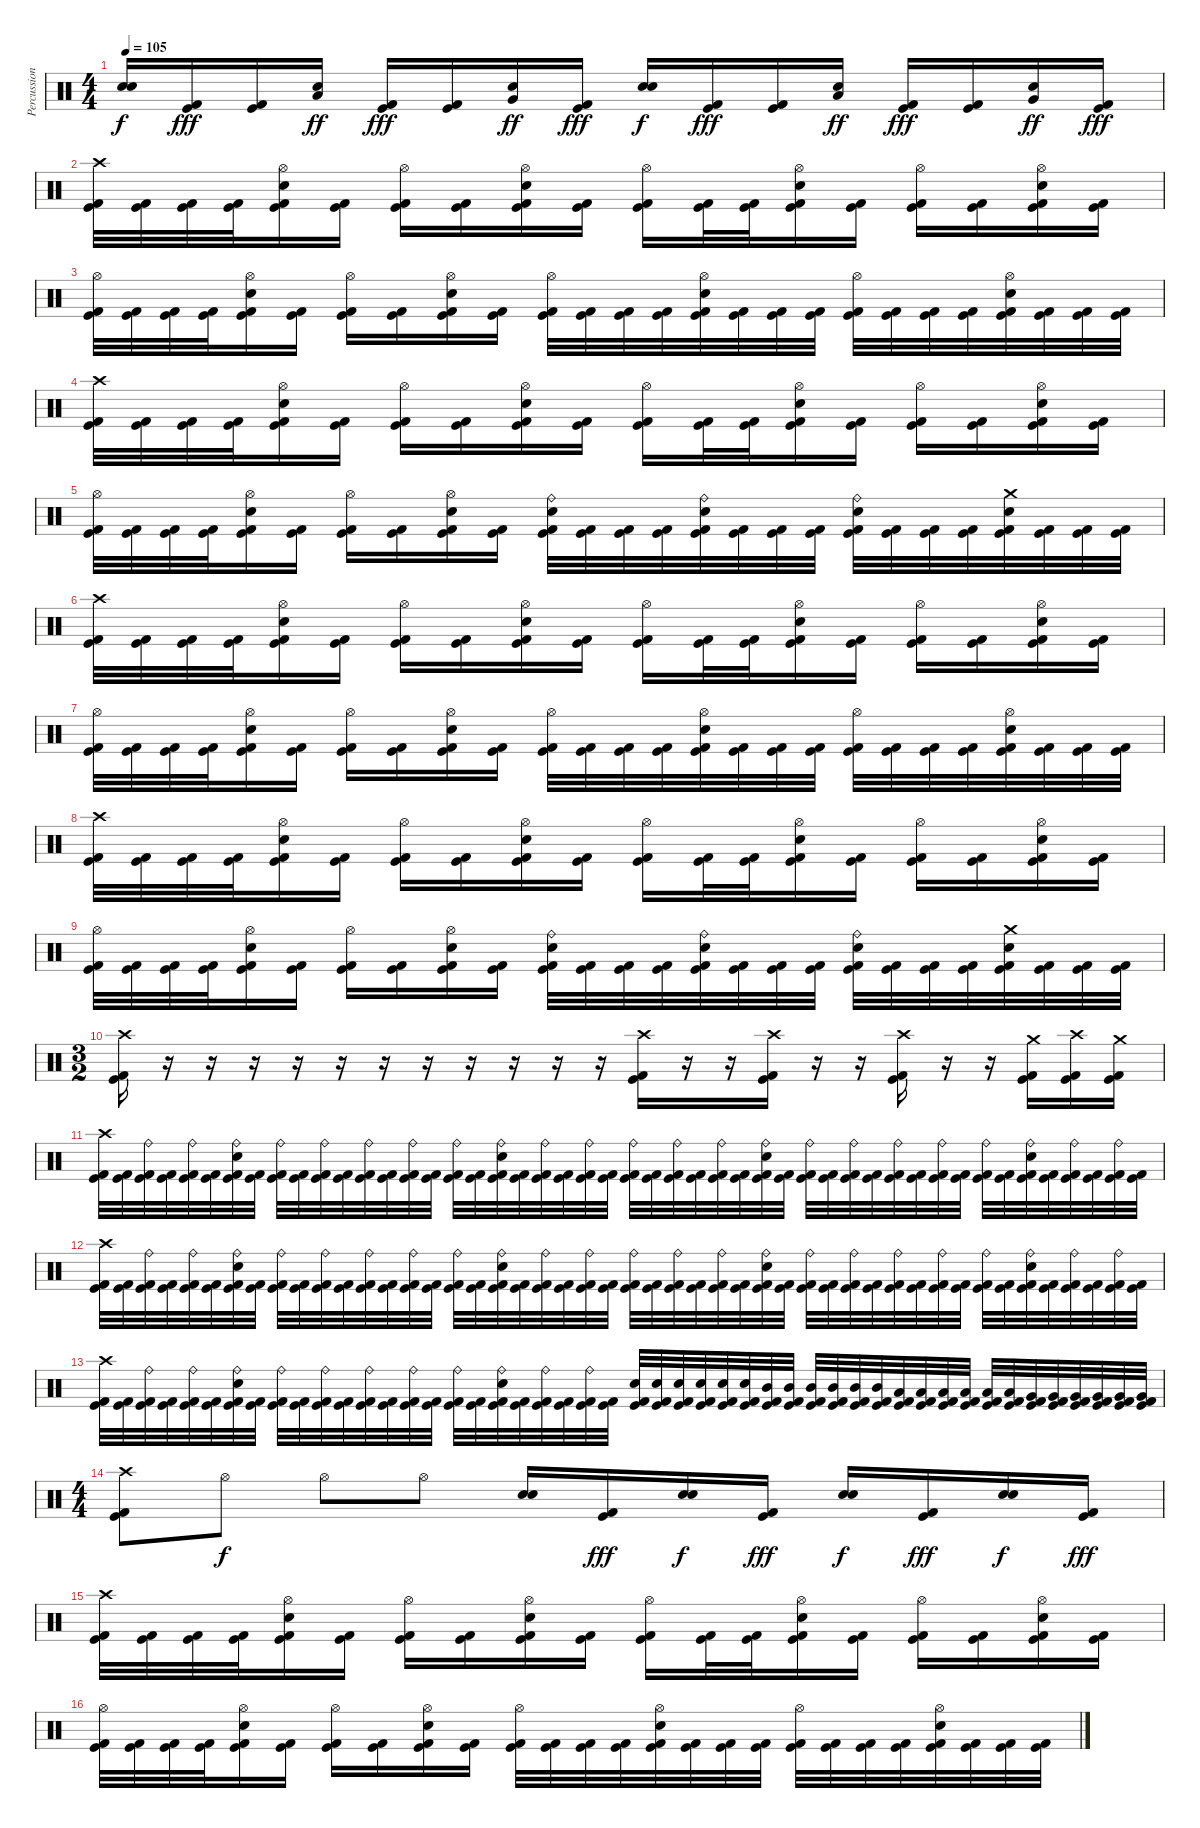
\track ("Percussion" "Percussion") {instrument percussion}
\staff {score}
\articulation defaults
\ts (4 4)
\tempo 105
\clef neutral
\ks c
("Electric Snare (hit)" "Electric Snare (hit)").16{bu 60 dy f} ("Kick (hit)" "Kick (hit) 2").16{dy fff} ("Kick (hit)" "Kick (hit) 2").16 ("Electric Snare (hit)" "Low Tom (hit)").16{bu 60 dy ff} ("Kick (hit)" "Kick (hit) 2").16{dy fff} ("Kick (hit)" "Kick (hit) 2").16 ("Electric Snare (hit)" "Very Low Tom (hit)").16{bu 60 dy ff} ("Kick (hit)" "Kick (hit) 2").16{dy fff} ("Electric Snare (hit)" "Electric Snare (hit)").16{bu 60 dy f} ("Kick (hit)" "Kick (hit) 2").16{dy fff} ("Kick (hit)" "Kick (hit) 2").16 ("Electric Snare (hit)" "Low Tom (hit)").16{bu 60 dy ff} ("Kick (hit)" "Kick (hit) 2").16{dy fff} ("Kick (hit)" "Kick (hit) 2").16 ("Electric Snare (hit)" "Very Low Tom (hit)").16{bu 60 dy ff} ("Kick (hit)" "Kick (hit) 2").16{dy fff} |
("Crash high (hit)" "Kick (hit)" "Kick (hit) 2").32 ("Kick (hit)" "Kick (hit) 2").32 ("Kick (hit)" "Kick (hit) 2").32 ("Kick (hit)" "Kick (hit) 2").32 ("Hi-Hat (open)" "Electric Snare (hit)" "Kick (hit)" "Kick (hit) 2").16 ("Kick (hit)" "Kick (hit) 2").16 ("Hi-Hat (open)" "Kick (hit)" "Kick (hit) 2").16 ("Kick (hit)" "Kick (hit) 2").16 ("Hi-Hat (open)" "Electric Snare (hit)" "Kick (hit)" "Kick (hit) 2").16 ("Kick (hit)" "Kick (hit) 2").16 ("Hi-Hat (open)" "Kick (hit)" "Kick (hit) 2").16 ("Kick (hit)" "Kick (hit) 2").32 ("Kick (hit)" "Kick (hit) 2").32 ("Hi-Hat (open)" "Electric Snare (hit)" "Kick (hit)" "Kick (hit) 2").16 ("Kick (hit)" "Kick (hit) 2").16 ("Hi-Hat (open)" "Kick (hit)" "Kick (hit) 2").16 ("Kick (hit)" "Kick (hit) 2").16 ("Hi-Hat (open)" "Electric Snare (hit)" "Kick (hit)" "Kick (hit) 2").16 ("Kick (hit)" "Kick (hit) 2").16 |
("Hi-Hat (open)" "Kick (hit)" "Kick (hit) 2").32 ("Kick (hit)" "Kick (hit) 2").32 ("Kick (hit)" "Kick (hit) 2").32 ("Kick (hit)" "Kick (hit) 2").32 ("Hi-Hat (open)" "Electric Snare (hit)" "Kick (hit)" "Kick (hit) 2").16 ("Kick (hit)" "Kick (hit) 2").16 ("Hi-Hat (open)" "Kick (hit)" "Kick (hit) 2").16 ("Kick (hit)" "Kick (hit) 2").16 ("Hi-Hat (open)" "Electric Snare (hit)" "Kick (hit)" "Kick (hit) 2").16 ("Kick (hit)" "Kick (hit) 2").16 ("Hi-Hat (open)" "Kick (hit)" "Kick (hit) 2").32 ("Kick (hit)" "Kick (hit) 2").32 ("Kick (hit)" "Kick (hit) 2").32 ("Kick (hit)" "Kick (hit) 2").32 ("Hi-Hat (open)" "Electric Snare (hit)" "Kick (hit)" "Kick (hit) 2").32 ("Kick (hit)" "Kick (hit) 2").32 ("Kick (hit)" "Kick (hit) 2").32 ("Kick (hit)" "Kick (hit) 2").32 ("Hi-Hat (open)" "Kick (hit)" "Kick (hit) 2").32 ("Kick (hit)" "Kick (hit) 2").32 ("Kick (hit)" "Kick (hit) 2").32 ("Kick (hit)" "Kick (hit) 2").32 ("Hi-Hat (open)" "Electric Snare (hit)" "Kick (hit)" "Kick (hit) 2").32 ("Kick (hit)" "Kick (hit) 2").32 ("Kick (hit)" "Kick (hit) 2").32 ("Kick (hit)" "Kick (hit) 2").32 |
("Crash high (hit)" "Kick (hit)" "Kick (hit) 2").32 ("Kick (hit)" "Kick (hit) 2").32 ("Kick (hit)" "Kick (hit) 2").32 ("Kick (hit)" "Kick (hit) 2").32 ("Hi-Hat (open)" "Electric Snare (hit)" "Kick (hit)" "Kick (hit) 2").16 ("Kick (hit)" "Kick (hit) 2").16 ("Hi-Hat (open)" "Kick (hit)" "Kick (hit) 2").16 ("Kick (hit)" "Kick (hit) 2").16 ("Hi-Hat (open)" "Electric Snare (hit)" "Kick (hit)" "Kick (hit) 2").16 ("Kick (hit)" "Kick (hit) 2").16 ("Hi-Hat (open)" "Kick (hit)" "Kick (hit) 2").16 ("Kick (hit)" "Kick (hit) 2").32 ("Kick (hit)" "Kick (hit) 2").32 ("Hi-Hat (open)" "Electric Snare (hit)" "Kick (hit)" "Kick (hit) 2").16 ("Kick (hit)" "Kick (hit) 2").16 ("Hi-Hat (open)" "Kick (hit)" "Kick (hit) 2").16 ("Kick (hit)" "Kick (hit) 2").16 ("Hi-Hat (open)" "Electric Snare (hit)" "Kick (hit)" "Kick (hit) 2").16 ("Kick (hit)" "Kick (hit) 2").16 |
("Hi-Hat (open)" "Kick (hit)" "Kick (hit) 2").32 ("Kick (hit)" "Kick (hit) 2").32 ("Kick (hit)" "Kick (hit) 2").32 ("Kick (hit)" "Kick (hit) 2").32 ("Hi-Hat (open)" "Electric Snare (hit)" "Kick (hit)" "Kick (hit) 2").16 ("Kick (hit)" "Kick (hit) 2").16 ("Hi-Hat (open)" "Kick (hit)" "Kick (hit) 2").16 ("Kick (hit)" "Kick (hit) 2").16 ("Hi-Hat (open)" "Electric Snare (hit)" "Kick (hit)" "Kick (hit) 2").16 ("Kick (hit)" "Kick (hit) 2").16 ("Ride (bell)" "Electric Snare (hit)" "Kick (hit)" "Kick (hit) 2").32 ("Kick (hit)" "Kick (hit) 2").32 ("Kick (hit)" "Kick (hit) 2").32 ("Kick (hit)" "Kick (hit) 2").32 ("Ride (bell)" "Electric Snare (hit)" "Kick (hit)" "Kick (hit) 2").32 ("Kick (hit)" "Kick (hit) 2").32 ("Kick (hit)" "Kick (hit) 2").32 ("Kick (hit)" "Kick (hit) 2").32 ("Ride (bell)" "Electric Snare (hit)" "Kick (hit)" "Kick (hit) 2").32 ("Kick (hit)" "Kick (hit) 2").32 ("Kick (hit)" "Kick (hit) 2").32 ("Kick (hit)" "Kick (hit) 2").32 ("Crash medium (hit)" "Electric Snare (hit)" "Kick (hit)" "Kick (hit) 2").32 ("Kick (hit)" "Kick (hit) 2").32 ("Kick (hit)" "Kick (hit) 2").32 ("Kick (hit)" "Kick (hit) 2").32 |
("Crash high (hit)" "Kick (hit)" "Kick (hit) 2").32 ("Kick (hit)" "Kick (hit) 2").32 ("Kick (hit)" "Kick (hit) 2").32 ("Kick (hit)" "Kick (hit) 2").32 ("Hi-Hat (open)" "Electric Snare (hit)" "Kick (hit)" "Kick (hit) 2").16 ("Kick (hit)" "Kick (hit) 2").16 ("Hi-Hat (open)" "Kick (hit)" "Kick (hit) 2").16 ("Kick (hit)" "Kick (hit) 2").16 ("Hi-Hat (open)" "Electric Snare (hit)" "Kick (hit)" "Kick (hit) 2").16 ("Kick (hit)" "Kick (hit) 2").16 ("Hi-Hat (open)" "Kick (hit)" "Kick (hit) 2").16 ("Kick (hit)" "Kick (hit) 2").32 ("Kick (hit)" "Kick (hit) 2").32 ("Hi-Hat (open)" "Electric Snare (hit)" "Kick (hit)" "Kick (hit) 2").16 ("Kick (hit)" "Kick (hit) 2").16 ("Hi-Hat (open)" "Kick (hit)" "Kick (hit) 2").16 ("Kick (hit)" "Kick (hit) 2").16 ("Hi-Hat (open)" "Electric Snare (hit)" "Kick (hit)" "Kick (hit) 2").16 ("Kick (hit)" "Kick (hit) 2").16 |
("Hi-Hat (open)" "Kick (hit)" "Kick (hit) 2").32 ("Kick (hit)" "Kick (hit) 2").32 ("Kick (hit)" "Kick (hit) 2").32 ("Kick (hit)" "Kick (hit) 2").32 ("Hi-Hat (open)" "Electric Snare (hit)" "Kick (hit)" "Kick (hit) 2").16 ("Kick (hit)" "Kick (hit) 2").16 ("Hi-Hat (open)" "Kick (hit)" "Kick (hit) 2").16 ("Kick (hit)" "Kick (hit) 2").16 ("Hi-Hat (open)" "Electric Snare (hit)" "Kick (hit)" "Kick (hit) 2").16 ("Kick (hit)" "Kick (hit) 2").16 ("Hi-Hat (open)" "Kick (hit)" "Kick (hit) 2").32 ("Kick (hit)" "Kick (hit) 2").32 ("Kick (hit)" "Kick (hit) 2").32 ("Kick (hit)" "Kick (hit) 2").32 ("Hi-Hat (open)" "Electric Snare (hit)" "Kick (hit)" "Kick (hit) 2").32 ("Kick (hit)" "Kick (hit) 2").32 ("Kick (hit)" "Kick (hit) 2").32 ("Kick (hit)" "Kick (hit) 2").32 ("Hi-Hat (open)" "Kick (hit)" "Kick (hit) 2").32 ("Kick (hit)" "Kick (hit) 2").32 ("Kick (hit)" "Kick (hit) 2").32 ("Kick (hit)" "Kick (hit) 2").32 ("Hi-Hat (open)" "Electric Snare (hit)" "Kick (hit)" "Kick (hit) 2").32 ("Kick (hit)" "Kick (hit) 2").32 ("Kick (hit)" "Kick (hit) 2").32 ("Kick (hit)" "Kick (hit) 2").32 |
("Crash high (hit)" "Kick (hit)" "Kick (hit) 2").32 ("Kick (hit)" "Kick (hit) 2").32 ("Kick (hit)" "Kick (hit) 2").32 ("Kick (hit)" "Kick (hit) 2").32 ("Hi-Hat (open)" "Electric Snare (hit)" "Kick (hit)" "Kick (hit) 2").16 ("Kick (hit)" "Kick (hit) 2").16 ("Hi-Hat (open)" "Kick (hit)" "Kick (hit) 2").16 ("Kick (hit)" "Kick (hit) 2").16 ("Hi-Hat (open)" "Electric Snare (hit)" "Kick (hit)" "Kick (hit) 2").16 ("Kick (hit)" "Kick (hit) 2").16 ("Hi-Hat (open)" "Kick (hit)" "Kick (hit) 2").16 ("Kick (hit)" "Kick (hit) 2").32 ("Kick (hit)" "Kick (hit) 2").32 ("Hi-Hat (open)" "Electric Snare (hit)" "Kick (hit)" "Kick (hit) 2").16 ("Kick (hit)" "Kick (hit) 2").16 ("Hi-Hat (open)" "Kick (hit)" "Kick (hit) 2").16 ("Kick (hit)" "Kick (hit) 2").16 ("Hi-Hat (open)" "Electric Snare (hit)" "Kick (hit)" "Kick (hit) 2").16 ("Kick (hit)" "Kick (hit) 2").16 |
("Hi-Hat (open)" "Kick (hit)" "Kick (hit) 2").32 ("Kick (hit)" "Kick (hit) 2").32 ("Kick (hit)" "Kick (hit) 2").32 ("Kick (hit)" "Kick (hit) 2").32 ("Hi-Hat (open)" "Electric Snare (hit)" "Kick (hit)" "Kick (hit) 2").16 ("Kick (hit)" "Kick (hit) 2").16 ("Hi-Hat (open)" "Kick (hit)" "Kick (hit) 2").16 ("Kick (hit)" "Kick (hit) 2").16 ("Hi-Hat (open)" "Electric Snare (hit)" "Kick (hit)" "Kick (hit) 2").16 ("Kick (hit)" "Kick (hit) 2").16 ("Ride (bell)" "Electric Snare (hit)" "Kick (hit)" "Kick (hit) 2").32 ("Kick (hit)" "Kick (hit) 2").32 ("Kick (hit)" "Kick (hit) 2").32 ("Kick (hit)" "Kick (hit) 2").32 ("Ride (bell)" "Electric Snare (hit)" "Kick (hit)" "Kick (hit) 2").32 ("Kick (hit)" "Kick (hit) 2").32 ("Kick (hit)" "Kick (hit) 2").32 ("Kick (hit)" "Kick (hit) 2").32 ("Ride (bell)" "Electric Snare (hit)" "Kick (hit)" "Kick (hit) 2").32 ("Kick (hit)" "Kick (hit) 2").32 ("Kick (hit)" "Kick (hit) 2").32 ("Kick (hit)" "Kick (hit) 2").32 ("Crash medium (hit)" "Electric Snare (hit)" "Kick (hit)" "Kick (hit) 2").32 ("Kick (hit)" "Kick (hit) 2").32 ("Kick (hit)" "Kick (hit) 2").32 ("Kick (hit)" "Kick (hit) 2").32 |
\ts (3 2)
("Crash high (hit)" "Kick (hit)" "Kick (hit) 2").16 r.16 r.16 r.16 r.16 r.16 r.16 r.16 r.16 r.16 r.16 r.16 ("Crash high (hit)" "Kick (hit)" "Kick (hit) 2").16 r.16 r.16 ("Crash high (hit)" "Kick (hit)" "Kick (hit) 2").16 r.16 r.16 ("Crash high (hit)" "Kick (hit)" "Kick (hit) 2").16 r.16 r.16 ("Crash medium (hit)" "Kick (hit)" "Kick (hit) 2").16 ("Crash high (hit)" "Kick (hit)" "Kick (hit) 2").16 ("Crash medium (hit)" "Kick (hit)" "Kick (hit) 2").16 |
("Crash high (hit)" "Kick (hit)" "Kick (hit) 2").32 ("Kick (hit)" "Kick (hit) 2").32 ("Ride (bell)" "Kick (hit)" "Kick (hit) 2").32 ("Kick (hit)" "Kick (hit) 2").32 ("Ride (bell)" "Kick (hit)" "Kick (hit) 2").32 ("Kick (hit)" "Kick (hit) 2").32 ("Ride (bell)" "Electric Snare (hit)" "Kick (hit)" "Kick (hit) 2").32 ("Kick (hit)" "Kick (hit) 2").32 ("Ride (bell)" "Kick (hit)" "Kick (hit) 2").32 ("Kick (hit)" "Kick (hit) 2").32 ("Ride (bell)" "Kick (hit)" "Kick (hit) 2").32 ("Kick (hit)" "Kick (hit) 2").32 ("Ride (bell)" "Kick (hit)" "Kick (hit) 2").32 ("Kick (hit)" "Kick (hit) 2").32 ("Ride (bell)" "Kick (hit)" "Kick (hit) 2").32 ("Kick (hit)" "Kick (hit) 2").32 ("Ride (bell)" "Kick (hit)" "Kick (hit) 2").32 ("Kick (hit)" "Kick (hit) 2").32 ("Ride (bell)" "Electric Snare (hit)" "Kick (hit)" "Kick (hit) 2").32 ("Kick (hit)" "Kick (hit) 2").32 ("Ride (bell)" "Kick (hit)" "Kick (hit) 2").32 ("Kick (hit)" "Kick (hit) 2").32 ("Ride (bell)" "Kick (hit)" "Kick (hit) 2").32 ("Kick (hit)" "Kick (hit) 2").32 ("Ride (bell)" "Kick (hit)" "Kick (hit) 2").32 ("Kick (hit)" "Kick (hit) 2").32 ("Ride (bell)" "Kick (hit)" "Kick (hit) 2").32 ("Kick (hit)" "Kick (hit) 2").32 ("Ride (bell)" "Kick (hit)" "Kick (hit) 2").32 ("Kick (hit)" "Kick (hit) 2").32 ("Ride (bell)" "Electric Snare (hit)" "Kick (hit)" "Kick (hit) 2").32 ("Kick (hit)" "Kick (hit) 2").32 ("Ride (bell)" "Kick (hit)" "Kick (hit) 2").32 ("Kick (hit)" "Kick (hit) 2").32 ("Ride (bell)" "Kick (hit)" "Kick (hit) 2").32 ("Kick (hit)" "Kick (hit) 2").32 ("Ride (bell)" "Kick (hit)" "Kick (hit) 2").32 ("Kick (hit)" "Kick (hit) 2").32 ("Ride (bell)" "Kick (hit)" "Kick (hit) 2").32 ("Kick (hit)" "Kick (hit) 2").32 ("Ride (bell)" "Kick (hit)" "Kick (hit) 2").32 ("Kick (hit)" "Kick (hit) 2").32 ("Ride (bell)" "Electric Snare (hit)" "Kick (hit)" "Kick (hit) 2").32 ("Kick (hit)" "Kick (hit) 2").32 ("Ride (bell)" "Kick (hit)" "Kick (hit) 2").32 ("Kick (hit)" "Kick (hit) 2").32 ("Ride (bell)" "Kick (hit)" "Kick (hit) 2").32 ("Kick (hit)" "Kick (hit) 2").32 |
("Crash high (hit)" "Kick (hit)" "Kick (hit) 2").32 ("Kick (hit)" "Kick (hit) 2").32 ("Ride (bell)" "Kick (hit)" "Kick (hit) 2").32 ("Kick (hit)" "Kick (hit) 2").32 ("Ride (bell)" "Kick (hit)" "Kick (hit) 2").32 ("Kick (hit)" "Kick (hit) 2").32 ("Ride (bell)" "Electric Snare (hit)" "Kick (hit)" "Kick (hit) 2").32 ("Kick (hit)" "Kick (hit) 2").32 ("Ride (bell)" "Kick (hit)" "Kick (hit) 2").32 ("Kick (hit)" "Kick (hit) 2").32 ("Ride (bell)" "Kick (hit)" "Kick (hit) 2").32 ("Kick (hit)" "Kick (hit) 2").32 ("Ride (bell)" "Kick (hit)" "Kick (hit) 2").32 ("Kick (hit)" "Kick (hit) 2").32 ("Ride (bell)" "Kick (hit)" "Kick (hit) 2").32 ("Kick (hit)" "Kick (hit) 2").32 ("Ride (bell)" "Kick (hit)" "Kick (hit) 2").32 ("Kick (hit)" "Kick (hit) 2").32 ("Ride (bell)" "Electric Snare (hit)" "Kick (hit)" "Kick (hit) 2").32 ("Kick (hit)" "Kick (hit) 2").32 ("Ride (bell)" "Kick (hit)" "Kick (hit) 2").32 ("Kick (hit)" "Kick (hit) 2").32 ("Ride (bell)" "Kick (hit)" "Kick (hit) 2").32 ("Kick (hit)" "Kick (hit) 2").32 ("Ride (bell)" "Kick (hit)" "Kick (hit) 2").32 ("Kick (hit)" "Kick (hit) 2").32 ("Ride (bell)" "Kick (hit)" "Kick (hit) 2").32 ("Kick (hit)" "Kick (hit) 2").32 ("Ride (bell)" "Kick (hit)" "Kick (hit) 2").32 ("Kick (hit)" "Kick (hit) 2").32 ("Ride (bell)" "Electric Snare (hit)" "Kick (hit)" "Kick (hit) 2").32 ("Kick (hit)" "Kick (hit) 2").32 ("Ride (bell)" "Kick (hit)" "Kick (hit) 2").32 ("Kick (hit)" "Kick (hit) 2").32 ("Ride (bell)" "Kick (hit)" "Kick (hit) 2").32 ("Kick (hit)" "Kick (hit) 2").32 ("Ride (bell)" "Kick (hit)" "Kick (hit) 2").32 ("Kick (hit)" "Kick (hit) 2").32 ("Ride (bell)" "Kick (hit)" "Kick (hit) 2").32 ("Kick (hit)" "Kick (hit) 2").32 ("Ride (bell)" "Kick (hit)" "Kick (hit) 2").32 ("Kick (hit)" "Kick (hit) 2").32 ("Ride (bell)" "Electric Snare (hit)" "Kick (hit)" "Kick (hit) 2").32 ("Kick (hit)" "Kick (hit) 2").32 ("Ride (bell)" "Kick (hit)" "Kick (hit) 2").32 ("Kick (hit)" "Kick (hit) 2").32 ("Ride (bell)" "Kick (hit)" "Kick (hit) 2").32 ("Kick (hit)" "Kick (hit) 2").32 |
("Crash high (hit)" "Kick (hit)" "Kick (hit) 2").32 ("Kick (hit)" "Kick (hit) 2").32 ("Ride (bell)" "Kick (hit)" "Kick (hit) 2").32 ("Kick (hit)" "Kick (hit) 2").32 ("Ride (bell)" "Kick (hit)" "Kick (hit) 2").32 ("Kick (hit)" "Kick (hit) 2").32 ("Ride (bell)" "Electric Snare (hit)" "Kick (hit)" "Kick (hit) 2").32 ("Kick (hit)" "Kick (hit) 2").32 ("Ride (bell)" "Kick (hit)" "Kick (hit) 2").32 ("Kick (hit)" "Kick (hit) 2").32 ("Ride (bell)" "Kick (hit)" "Kick (hit) 2").32 ("Kick (hit)" "Kick (hit) 2").32 ("Ride (bell)" "Kick (hit)" "Kick (hit) 2").32 ("Kick (hit)" "Kick (hit) 2").32 ("Ride (bell)" "Kick (hit)" "Kick (hit) 2").32 ("Kick (hit)" "Kick (hit) 2").32 ("Ride (bell)" "Kick (hit)" "Kick (hit) 2").32 ("Kick (hit)" "Kick (hit) 2").32 ("Ride (bell)" "Electric Snare (hit)" "Kick (hit)" "Kick (hit) 2").32 ("Kick (hit)" "Kick (hit) 2").32 ("Ride (bell)" "Kick (hit)" "Kick (hit) 2").32 ("Kick (hit)" "Kick (hit) 2").32 ("Ride (bell)" "Kick (hit)" "Kick (hit) 2").32 ("Kick (hit)" "Kick (hit) 2").32 ("Electric Snare (hit)" "Kick (hit)" "Kick (hit) 2").32 ("Electric Snare (hit)" "Kick (hit)" "Kick (hit) 2").32 ("Electric Snare (hit)" "Kick (hit)" "Kick (hit) 2").32 ("Electric Snare (hit)" "Kick (hit)" "Kick (hit) 2").32 ("Electric Snare (hit)" "Kick (hit)" "Kick (hit) 2").32 ("Electric Snare (hit)" "Kick (hit)" "Kick (hit) 2").32 ("Mid Tom (hit)" "Kick (hit)" "Kick (hit) 2").32 ("Mid Tom (hit)" "Kick (hit)" "Kick (hit) 2").32 ("Mid Tom (hit)" "Kick (hit)" "Kick (hit) 2").32 ("Mid Tom (hit)" "Kick (hit)" "Kick (hit) 2").32 ("Mid Tom (hit)" "Kick (hit)" "Kick (hit) 2").32 ("Mid Tom (hit)" "Kick (hit)" "Kick (hit) 2").32 ("Low Tom (hit)" "Kick (hit)" "Kick (hit) 2").32 ("Low Tom (hit)" "Kick (hit)" "Kick (hit) 2").32 ("Low Tom (hit)" "Kick (hit)" "Kick (hit) 2").32 ("Low Tom (hit)" "Kick (hit)" "Kick (hit) 2").32 ("Low Tom (hit)" "Kick (hit)" "Kick (hit) 2").32 ("Low Tom (hit)" "Kick (hit)" "Kick (hit) 2").32 ("Very Low Tom (hit)" "Kick (hit)" "Kick (hit) 2").32 ("Very Low Tom (hit)" "Kick (hit)" "Kick (hit) 2").32 ("Very Low Tom (hit)" "Kick (hit)" "Kick (hit) 2").32 ("Very Low Tom (hit)" "Kick (hit)" "Kick (hit) 2").32 ("Very Low Tom (hit)" "Kick (hit)" "Kick (hit) 2").32 ("Very Low Tom (hit)" "Kick (hit)" "Kick (hit) 2").32 |
\ts (4 4)
("Crash high (hit)" "Kick (hit)" "Kick (hit) 2").8 "Hi-Hat (open)".8{dy f} "Hi-Hat (open)".8 "Hi-Hat (open)".8 ("Electric Snare (hit)" "Electric Snare (hit)").16{bu 120} ("Kick (hit)" "Kick (hit) 2").16{dy fff} ("Electric Snare (hit)" "Electric Snare (hit)").16{bu 120 dy f} ("Kick (hit)" "Kick (hit) 2").16{dy fff} ("Electric Snare (hit)" "Electric Snare (hit)").16{bu 120 dy f} ("Kick (hit)" "Kick (hit) 2").16{dy fff} ("Electric Snare (hit)" "Electric Snare (hit)").16{bu 120 dy f} ("Kick (hit)" "Kick (hit) 2").16{dy fff} |
("Crash high (hit)" "Kick (hit)" "Kick (hit) 2").32 ("Kick (hit)" "Kick (hit) 2").32 ("Kick (hit)" "Kick (hit) 2").32 ("Kick (hit)" "Kick (hit) 2").32 ("Hi-Hat (open)" "Electric Snare (hit)" "Kick (hit)" "Kick (hit) 2").16 ("Kick (hit)" "Kick (hit) 2").16 ("Hi-Hat (open)" "Kick (hit)" "Kick (hit) 2").16 ("Kick (hit)" "Kick (hit) 2").16 ("Hi-Hat (open)" "Electric Snare (hit)" "Kick (hit)" "Kick (hit) 2").16 ("Kick (hit)" "Kick (hit) 2").16 ("Hi-Hat (open)" "Kick (hit)" "Kick (hit) 2").16 ("Kick (hit)" "Kick (hit) 2").32 ("Kick (hit)" "Kick (hit) 2").32 ("Hi-Hat (open)" "Electric Snare (hit)" "Kick (hit)" "Kick (hit) 2").16 ("Kick (hit)" "Kick (hit) 2").16 ("Hi-Hat (open)" "Kick (hit)" "Kick (hit) 2").16 ("Kick (hit)" "Kick (hit) 2").16 ("Hi-Hat (open)" "Electric Snare (hit)" "Kick (hit)" "Kick (hit) 2").16 ("Kick (hit)" "Kick (hit) 2").16 |
("Hi-Hat (open)" "Kick (hit)" "Kick (hit) 2").32 ("Kick (hit)" "Kick (hit) 2").32 ("Kick (hit)" "Kick (hit) 2").32 ("Kick (hit)" "Kick (hit) 2").32 ("Hi-Hat (open)" "Electric Snare (hit)" "Kick (hit)" "Kick (hit) 2").16 ("Kick (hit)" "Kick (hit) 2").16 ("Hi-Hat (open)" "Kick (hit)" "Kick (hit) 2").16 ("Kick (hit)" "Kick (hit) 2").16 ("Hi-Hat (open)" "Electric Snare (hit)" "Kick (hit)" "Kick (hit) 2").16 ("Kick (hit)" "Kick (hit) 2").16 ("Hi-Hat (open)" "Kick (hit)" "Kick (hit) 2").32 ("Kick (hit)" "Kick (hit) 2").32 ("Kick (hit)" "Kick (hit) 2").32 ("Kick (hit)" "Kick (hit) 2").32 ("Hi-Hat (open)" "Electric Snare (hit)" "Kick (hit)" "Kick (hit) 2").32 ("Kick (hit)" "Kick (hit) 2").32 ("Kick (hit)" "Kick (hit) 2").32 ("Kick (hit)" "Kick (hit) 2").32 ("Hi-Hat (open)" "Kick (hit)" "Kick (hit) 2").32 ("Kick (hit)" "Kick (hit) 2").32 ("Kick (hit)" "Kick (hit) 2").32 ("Kick (hit)" "Kick (hit) 2").32 ("Hi-Hat (open)" "Electric Snare (hit)" "Kick (hit)" "Kick (hit) 2").32 ("Kick (hit)" "Kick (hit) 2").32 ("Kick (hit)" "Kick (hit) 2").32 ("Kick (hit)" "Kick (hit) 2").32
